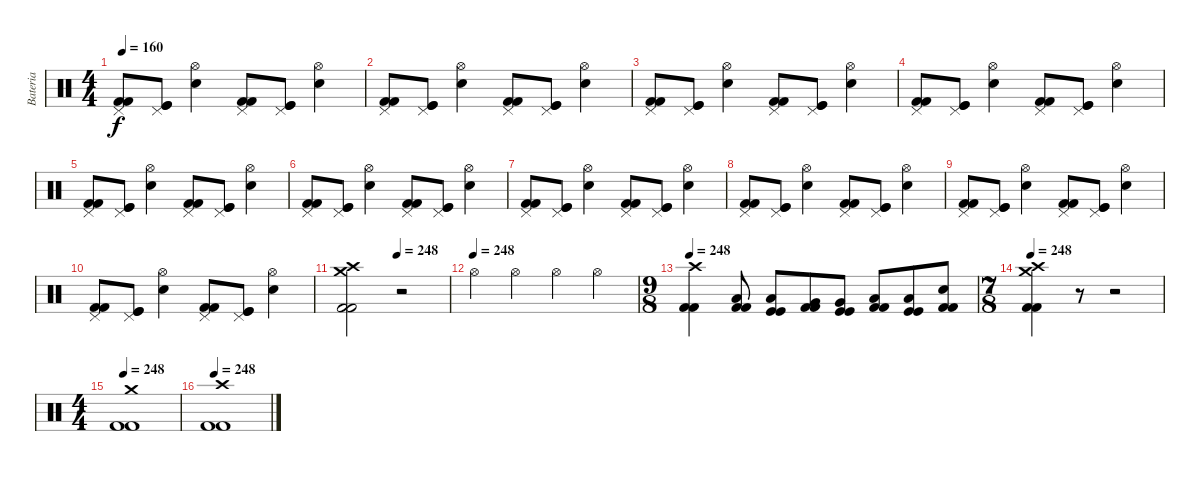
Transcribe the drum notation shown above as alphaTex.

\track ("Bateria" "Bateria") {instrument percussion}
\staff {score}
\articulation defaults
\ts (4 4)
\tempo 160
\clef neutral
\ks c
("Kick (hit) 2" "Kick (hit) 2" "Pedal Hi-Hat (hit)").8{dy f} ("Kick (hit)" "Kick (hit)" "Pedal Hi-Hat (hit)").8 ("Snare (hit) 2" "Hi-Hat (open)").4 ("Kick (hit) 2" "Kick (hit) 2" "Pedal Hi-Hat (hit)").8 ("Kick (hit)" "Kick (hit)" "Pedal Hi-Hat (hit)").8 ("Snare (hit) 2" "Hi-Hat (open)").4 |
("Kick (hit) 2" "Kick (hit) 2" "Pedal Hi-Hat (hit)").8 ("Kick (hit)" "Kick (hit)" "Pedal Hi-Hat (hit)").8 ("Snare (hit) 2" "Hi-Hat (open)").4 ("Kick (hit) 2" "Kick (hit) 2" "Pedal Hi-Hat (hit)").8 ("Kick (hit)" "Kick (hit)" "Pedal Hi-Hat (hit)").8 ("Snare (hit) 2" "Hi-Hat (open)").4 |
("Kick (hit) 2" "Kick (hit) 2" "Pedal Hi-Hat (hit)").8 ("Kick (hit)" "Kick (hit)" "Pedal Hi-Hat (hit)").8 ("Snare (hit) 2" "Hi-Hat (open)").4 ("Kick (hit) 2" "Kick (hit) 2" "Pedal Hi-Hat (hit)").8 ("Kick (hit)" "Kick (hit)" "Pedal Hi-Hat (hit)").8 ("Snare (hit) 2" "Hi-Hat (open)").4 |
("Kick (hit) 2" "Kick (hit) 2" "Pedal Hi-Hat (hit)").8 ("Kick (hit)" "Kick (hit)" "Pedal Hi-Hat (hit)").8 ("Snare (hit) 2" "Hi-Hat (open)").4 ("Kick (hit) 2" "Kick (hit) 2" "Pedal Hi-Hat (hit)").8 ("Kick (hit)" "Kick (hit)" "Pedal Hi-Hat (hit)").8 ("Snare (hit) 2" "Hi-Hat (open)").4 |
("Kick (hit) 2" "Kick (hit) 2" "Pedal Hi-Hat (hit)").8 ("Kick (hit)" "Kick (hit)" "Pedal Hi-Hat (hit)").8 ("Snare (hit) 2" "Hi-Hat (open)").4 ("Kick (hit) 2" "Kick (hit) 2" "Pedal Hi-Hat (hit)").8 ("Kick (hit)" "Kick (hit)" "Pedal Hi-Hat (hit)").8 ("Snare (hit) 2" "Hi-Hat (open)").4 |
("Kick (hit) 2" "Kick (hit) 2" "Pedal Hi-Hat (hit)").8 ("Kick (hit)" "Kick (hit)" "Pedal Hi-Hat (hit)").8 ("Snare (hit) 2" "Hi-Hat (open)").4 ("Kick (hit) 2" "Kick (hit) 2" "Pedal Hi-Hat (hit)").8 ("Kick (hit)" "Kick (hit)" "Pedal Hi-Hat (hit)").8 ("Snare (hit) 2" "Hi-Hat (open)").4 |
("Kick (hit) 2" "Kick (hit) 2" "Pedal Hi-Hat (hit)").8 ("Kick (hit)" "Kick (hit)" "Pedal Hi-Hat (hit)").8 ("Snare (hit) 2" "Hi-Hat (open)").4 ("Kick (hit) 2" "Kick (hit) 2" "Pedal Hi-Hat (hit)").8 ("Kick (hit)" "Kick (hit)" "Pedal Hi-Hat (hit)").8 ("Snare (hit) 2" "Hi-Hat (open)").4 |
("Kick (hit) 2" "Kick (hit) 2" "Pedal Hi-Hat (hit)").8 ("Kick (hit)" "Kick (hit)" "Pedal Hi-Hat (hit)").8 ("Snare (hit) 2" "Hi-Hat (open)").4 ("Kick (hit) 2" "Kick (hit) 2" "Pedal Hi-Hat (hit)").8 ("Kick (hit)" "Kick (hit)" "Pedal Hi-Hat (hit)").8 ("Snare (hit) 2" "Hi-Hat (open)").4 |
("Kick (hit) 2" "Kick (hit) 2" "Pedal Hi-Hat (hit)").8 ("Kick (hit)" "Kick (hit)" "Pedal Hi-Hat (hit)").8 ("Snare (hit) 2" "Hi-Hat (open)").4 ("Kick (hit) 2" "Kick (hit) 2" "Pedal Hi-Hat (hit)").8 ("Kick (hit)" "Kick (hit)" "Pedal Hi-Hat (hit)").8 ("Snare (hit) 2" "Hi-Hat (open)").4 |
("Kick (hit) 2" "Kick (hit) 2" "Pedal Hi-Hat (hit)").8 ("Kick (hit)" "Kick (hit)" "Pedal Hi-Hat (hit)").8 ("Snare (hit) 2" "Hi-Hat (open)").4 ("Kick (hit) 2" "Kick (hit) 2" "Pedal Hi-Hat (hit)").8 ("Kick (hit)" "Kick (hit)" "Pedal Hi-Hat (hit)").8 ("Snare (hit) 2" "Hi-Hat (open)").4 |
\tempo (248 0.5)
("Kick (hit) 2" "Kick (hit) 2" "Crash medium (hit)" "Crash high (hit)").2 r.2 |
\tempo (248)
"Hi-Hat (open)".4 "Hi-Hat (open)".4 "Hi-Hat (open)".4 "Hi-Hat (open)".4 |
\ts (9 8)
\tempo 248
("Kick (hit) 2" "Kick (hit) 2" "Crash high (hit)").4 ("Kick (hit) 2" "Kick (hit) 2" "Low Floor Tom (hit)").8 ("Kick (hit)" "Kick (hit)" "Low Floor Tom (hit)").8 ("Kick (hit) 2" "Kick (hit) 2" "Very Low Tom (hit)").8 ("Kick (hit)" "Kick (hit)" "Very Low Tom (hit)").8 ("Kick (hit) 2" "Kick (hit) 2" "Low Tom (hit)").8 ("Kick (hit)" "Kick (hit)" "Low Tom (hit)").8 ("Kick (hit) 2" "Kick (hit) 2" "Snare (hit) 2").8 |
\ts (7 8)
\tempo 248
("Kick (hit) 2" "Kick (hit) 2" "Crash medium (hit)" "Crash high (hit)").4 r.8 r.2 |
\ts (4 4)
\tempo 248
("Kick (hit) 2" "Kick (hit) 2" "Crash medium (hit)").1 |
\tempo 248
("Kick (hit) 2" "Kick (hit) 2" "Crash high (hit)").1
